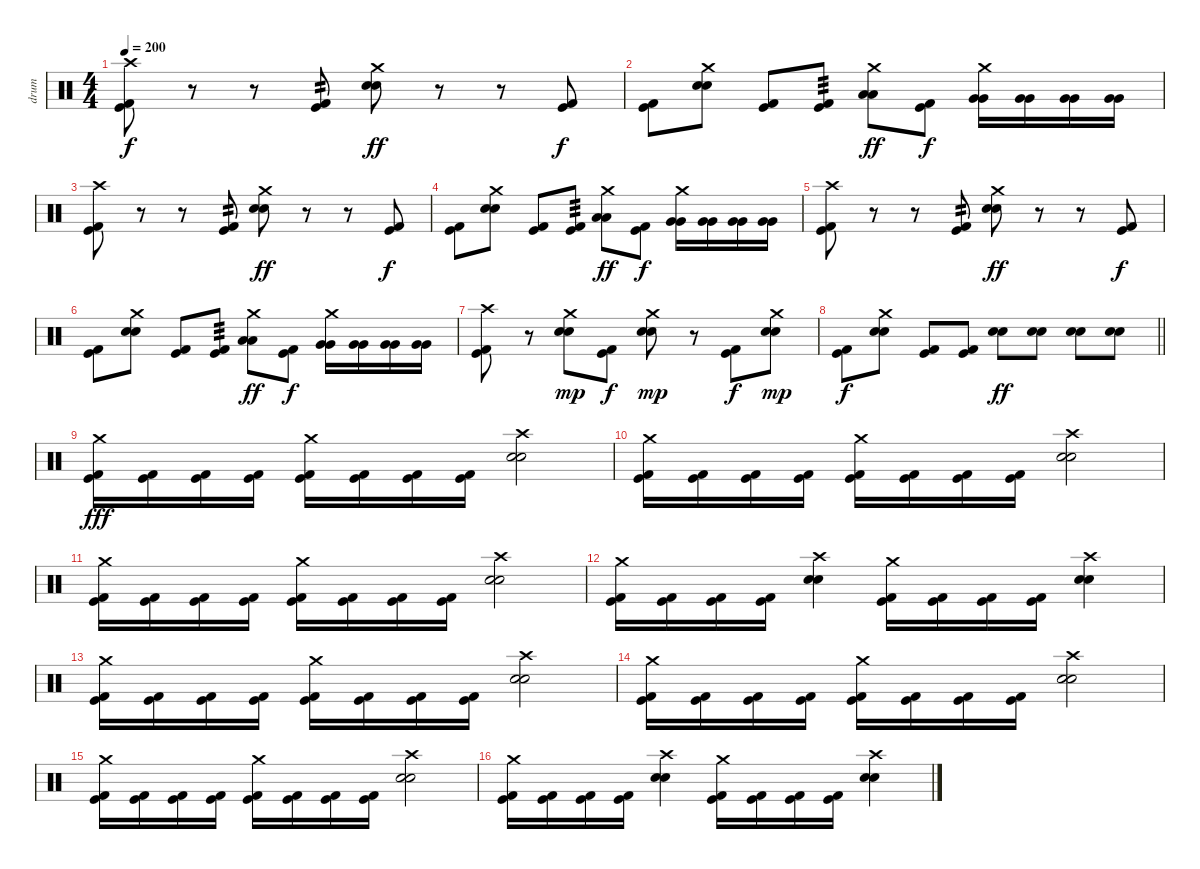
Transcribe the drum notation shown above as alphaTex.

\track ("drum" "drum") {instrument percussion}
\staff {score}
\articulation defaults
\ts (4 4)
\tempo 200
\clef neutral
\ks c
("Crash high (hit)" "Kick (hit)" "Kick (hit) 2").8{dy f} r.8 r.8 ("Kick (hit)" "Kick (hit) 2").8{tp 2} ("Crash medium (hit)" "Electric Snare (hit)" "Electric Snare (hit)").8{dy ff} r.8 r.8 ("Kick (hit)" "Kick (hit) 2").8{dy f} |
("Kick (hit)" "Kick (hit) 2").8 ("Crash medium (hit)" "Electric Snare (hit)" "Electric Snare (hit)").8 ("Kick (hit)" "Kick (hit) 2").8 ("Kick (hit)" "Kick (hit) 2").8{tp 3} ("Crash medium (hit)" "Low Tom (hit)" "Low Tom (hit)").8{dy ff} ("Kick (hit)" "Kick (hit) 2").8{dy f} ("Crash medium (hit)" "Very Low Tom (hit)" "Very Low Tom (hit)").16 ("Very Low Tom (hit)" "Very Low Tom (hit)").16 ("Very Low Tom (hit)" "Very Low Tom (hit)").16 ("Very Low Tom (hit)" "Very Low Tom (hit)").16 |
("Crash high (hit)" "Kick (hit)" "Kick (hit) 2").8 r.8 r.8 ("Kick (hit)" "Kick (hit) 2").8{tp 2} ("Crash medium (hit)" "Electric Snare (hit)" "Electric Snare (hit)").8{dy ff} r.8 r.8 ("Kick (hit)" "Kick (hit) 2").8{dy f} |
("Kick (hit)" "Kick (hit) 2").8 ("Crash medium (hit)" "Electric Snare (hit)" "Electric Snare (hit)").8 ("Kick (hit)" "Kick (hit) 2").8 ("Kick (hit)" "Kick (hit) 2").8{tp 3} ("Crash medium (hit)" "Low Tom (hit)" "Low Tom (hit)").8{dy ff} ("Kick (hit)" "Kick (hit) 2").8{dy f} ("Crash medium (hit)" "Very Low Tom (hit)" "Very Low Tom (hit)").16 ("Very Low Tom (hit)" "Very Low Tom (hit)").16 ("Very Low Tom (hit)" "Very Low Tom (hit)").16 ("Very Low Tom (hit)" "Very Low Tom (hit)").16 |
("Crash high (hit)" "Kick (hit)" "Kick (hit) 2").8 r.8 r.8 ("Kick (hit)" "Kick (hit) 2").8{tp 2} ("Crash medium (hit)" "Electric Snare (hit)" "Electric Snare (hit)").8{dy ff} r.8 r.8 ("Kick (hit)" "Kick (hit) 2").8{dy f} |
("Kick (hit)" "Kick (hit) 2").8 ("Crash medium (hit)" "Electric Snare (hit)" "Electric Snare (hit)").8 ("Kick (hit)" "Kick (hit) 2").8 ("Kick (hit)" "Kick (hit) 2").8{tp 3} ("Crash medium (hit)" "Low Tom (hit)" "Low Tom (hit)").8{dy ff} ("Kick (hit)" "Kick (hit) 2").8{dy f} ("Crash medium (hit)" "Very Low Tom (hit)" "Very Low Tom (hit)").16 ("Very Low Tom (hit)" "Very Low Tom (hit)").16 ("Very Low Tom (hit)" "Very Low Tom (hit)").16 ("Very Low Tom (hit)" "Very Low Tom (hit)").16 |
("Crash high (hit)" "Kick (hit)" "Kick (hit) 2").8 r.8 ("Crash medium (hit)" "Electric Snare (hit)" "Electric Snare (hit)").8{dy mp} ("Kick (hit)" "Kick (hit) 2").8{dy f} ("Crash medium (hit)" "Electric Snare (hit)" "Electric Snare (hit)").8{dy mp} r.8 ("Kick (hit)" "Kick (hit) 2").8{dy f} ("Crash medium (hit)" "Electric Snare (hit)" "Electric Snare (hit)").8{dy mp} |
\barLineRight lightlight
("Kick (hit)" "Kick (hit) 2").8{dy f} ("Crash medium (hit)" "Electric Snare (hit)" "Electric Snare (hit)").8 ("Kick (hit)" "Kick (hit) 2").8 ("Kick (hit)" "Kick (hit) 2").8 ("Electric Snare (hit)" "Electric Snare (hit)").8{dy ff} ("Electric Snare (hit)" "Electric Snare (hit)").8 ("Electric Snare (hit)" "Electric Snare (hit)").8 ("Electric Snare (hit)" "Electric Snare (hit)").8 |
\section ("" "")
("Crash medium (hit)" "Kick (hit)" "Kick (hit) 2").16{dy fff} ("Kick (hit)" "Kick (hit) 2").16 ("Kick (hit)" "Kick (hit) 2").16 ("Kick (hit)" "Kick (hit) 2").16 ("Crash medium (hit)" "Kick (hit)" "Kick (hit) 2").16 ("Kick (hit)" "Kick (hit) 2").16 ("Kick (hit)" "Kick (hit) 2").16 ("Kick (hit)" "Kick (hit) 2").16 ("Crash high (hit)" "Electric Snare (hit)" "Electric Snare (hit)").2 |
("Crash medium (hit)" "Kick (hit)" "Kick (hit) 2").16 ("Kick (hit)" "Kick (hit) 2").16 ("Kick (hit)" "Kick (hit) 2").16 ("Kick (hit)" "Kick (hit) 2").16 ("Crash medium (hit)" "Kick (hit)" "Kick (hit) 2").16 ("Kick (hit)" "Kick (hit) 2").16 ("Kick (hit)" "Kick (hit) 2").16 ("Kick (hit)" "Kick (hit) 2").16 ("Crash high (hit)" "Electric Snare (hit)" "Electric Snare (hit)").2 |
("Crash medium (hit)" "Kick (hit)" "Kick (hit) 2").16 ("Kick (hit)" "Kick (hit) 2").16 ("Kick (hit)" "Kick (hit) 2").16 ("Kick (hit)" "Kick (hit) 2").16 ("Crash medium (hit)" "Kick (hit)" "Kick (hit) 2").16 ("Kick (hit)" "Kick (hit) 2").16 ("Kick (hit)" "Kick (hit) 2").16 ("Kick (hit)" "Kick (hit) 2").16 ("Crash high (hit)" "Electric Snare (hit)" "Electric Snare (hit)").2 |
("Crash medium (hit)" "Kick (hit)" "Kick (hit) 2").16 ("Kick (hit)" "Kick (hit) 2").16 ("Kick (hit)" "Kick (hit) 2").16 ("Kick (hit)" "Kick (hit) 2").16 ("Crash high (hit)" "Electric Snare (hit)" "Electric Snare (hit)").4 ("Crash medium (hit)" "Kick (hit)" "Kick (hit) 2").16 ("Kick (hit)" "Kick (hit) 2").16 ("Kick (hit)" "Kick (hit) 2").16 ("Kick (hit)" "Kick (hit) 2").16 ("Crash high (hit)" "Electric Snare (hit)" "Electric Snare (hit)").4 |
("Crash medium (hit)" "Kick (hit)" "Kick (hit) 2").16 ("Kick (hit)" "Kick (hit) 2").16 ("Kick (hit)" "Kick (hit) 2").16 ("Kick (hit)" "Kick (hit) 2").16 ("Crash medium (hit)" "Kick (hit)" "Kick (hit) 2").16 ("Kick (hit)" "Kick (hit) 2").16 ("Kick (hit)" "Kick (hit) 2").16 ("Kick (hit)" "Kick (hit) 2").16 ("Crash high (hit)" "Electric Snare (hit)" "Electric Snare (hit)").2 |
("Crash medium (hit)" "Kick (hit)" "Kick (hit) 2").16 ("Kick (hit)" "Kick (hit) 2").16 ("Kick (hit)" "Kick (hit) 2").16 ("Kick (hit)" "Kick (hit) 2").16 ("Crash medium (hit)" "Kick (hit)" "Kick (hit) 2").16 ("Kick (hit)" "Kick (hit) 2").16 ("Kick (hit)" "Kick (hit) 2").16 ("Kick (hit)" "Kick (hit) 2").16 ("Crash high (hit)" "Electric Snare (hit)" "Electric Snare (hit)").2 |
("Crash medium (hit)" "Kick (hit)" "Kick (hit) 2").16 ("Kick (hit)" "Kick (hit) 2").16 ("Kick (hit)" "Kick (hit) 2").16 ("Kick (hit)" "Kick (hit) 2").16 ("Crash medium (hit)" "Kick (hit)" "Kick (hit) 2").16 ("Kick (hit)" "Kick (hit) 2").16 ("Kick (hit)" "Kick (hit) 2").16 ("Kick (hit)" "Kick (hit) 2").16 ("Crash high (hit)" "Electric Snare (hit)" "Electric Snare (hit)").2 |
("Crash medium (hit)" "Kick (hit)" "Kick (hit) 2").16 ("Kick (hit)" "Kick (hit) 2").16 ("Kick (hit)" "Kick (hit) 2").16 ("Kick (hit)" "Kick (hit) 2").16 ("Crash high (hit)" "Electric Snare (hit)" "Electric Snare (hit)").4 ("Crash medium (hit)" "Kick (hit)" "Kick (hit) 2").16 ("Kick (hit)" "Kick (hit) 2").16 ("Kick (hit)" "Kick (hit) 2").16 ("Kick (hit)" "Kick (hit) 2").16 ("Crash high (hit)" "Electric Snare (hit)" "Electric Snare (hit)").4
